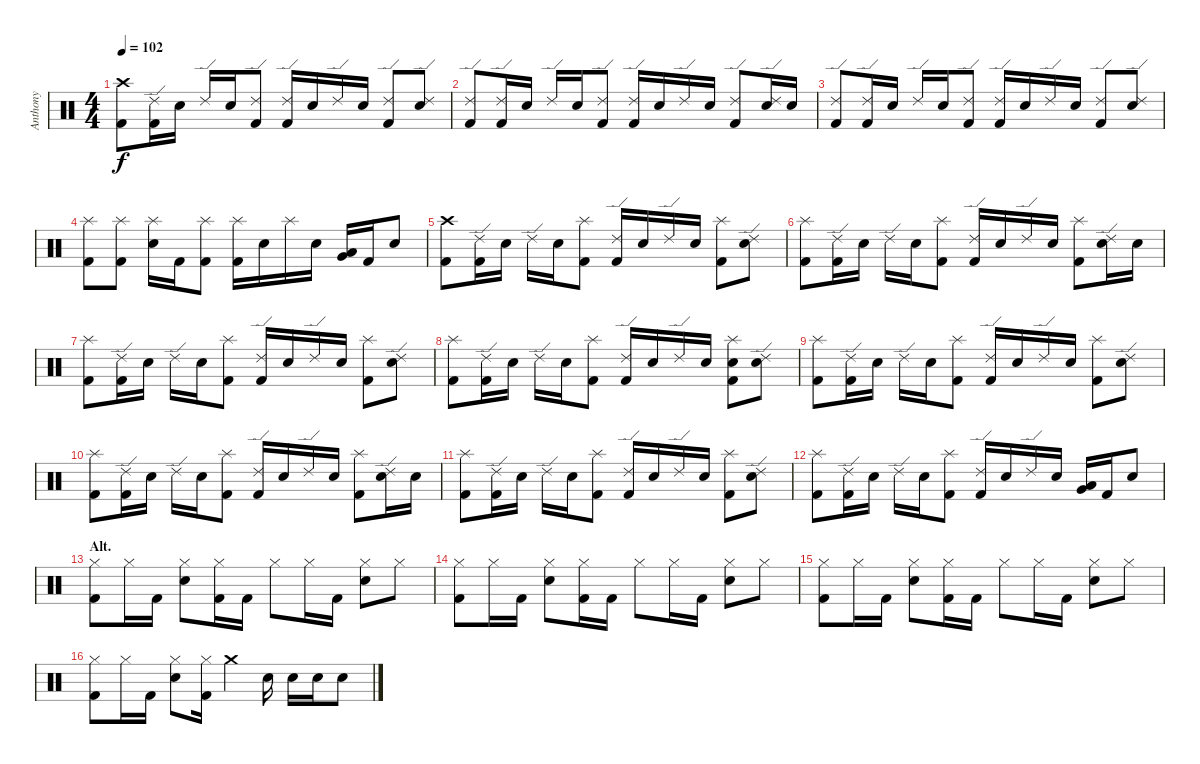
\track ("Anthony" "Anthony") {instrument percussion}
\staff {score}
\articulation defaults
\ts (4 4)
\tempo 102
\clef neutral
\ks c
("Crash high (hit)" "Kick (hit) 2").8{dy f} ("Ride (edge) 2" "Kick (hit) 2").16 "Electric Snare (hit)".16 "Ride (edge) 2".16 "Electric Snare (hit)".16 ("Ride (edge) 2" "Kick (hit) 2").8 ("Ride (edge) 2" "Kick (hit) 2").16 "Electric Snare (hit)".16 "Ride (edge) 2".16 "Electric Snare (hit)".16 ("Ride (edge) 2" "Kick (hit) 2").8 ("Ride (edge) 2" "Electric Snare (hit)").8 |
("Ride (edge) 2" "Kick (hit) 2").8 ("Ride (edge) 2" "Kick (hit) 2").16 "Electric Snare (hit)".16 "Ride (edge) 2".16 "Electric Snare (hit)".16 ("Ride (edge) 2" "Kick (hit) 2").8 ("Ride (edge) 2" "Kick (hit) 2").16 "Electric Snare (hit)".16 "Ride (edge) 2".16 "Electric Snare (hit)".16 ("Ride (edge) 2" "Kick (hit) 2").8 ("Ride (edge) 2" "Electric Snare (hit)").16 "Electric Snare (hit)".16 |
("Ride (edge) 2" "Kick (hit) 2").8 ("Ride (edge) 2" "Kick (hit) 2").16 "Electric Snare (hit)".16 "Ride (edge) 2".16 "Electric Snare (hit)".16 ("Ride (edge) 2" "Kick (hit) 2").8 ("Ride (edge) 2" "Kick (hit) 2").16 "Electric Snare (hit)".16 "Ride (edge) 2".16 "Electric Snare (hit)".16 ("Ride (edge) 2" "Kick (hit) 2").8 ("Ride (edge) 2" "Electric Snare (hit)").8 |
("Splash (hit)" "Kick (hit) 2").8 ("Splash (hit)" "Kick (hit) 2").8 ("Splash (hit)" "Electric Snare (hit)").16 "Kick (hit) 2".16 ("Splash (hit)" "Kick (hit) 2").8 ("Splash (hit)" "Kick (hit) 2").16 "Electric Snare (hit)".16 "Splash (hit)".16 "Electric Snare (hit)".16 ("Low Floor Tom (hit)" "Very Low Tom (hit)").16 "Kick (hit) 2".16 "Electric Snare (hit)".8 |
("Crash high (hit)" "Kick (hit) 2").8 ("Ride (edge) 2" "Kick (hit) 2").16 "Electric Snare (hit)".16 "Ride (edge) 2".16 "Electric Snare (hit)".16 ("Splash (hit)" "Kick (hit) 2").8 ("Ride (edge) 2" "Kick (hit) 2").16 "Electric Snare (hit)".16 "Ride (edge) 2".16 "Electric Snare (hit)".16 ("Splash (hit)" "Kick (hit) 2").8 ("Ride (edge) 2" "Electric Snare (hit)").8 |
("Splash (hit)" "Kick (hit) 2").8 ("Ride (edge) 2" "Kick (hit) 2").16 "Electric Snare (hit)".16 "Ride (edge) 2".16 "Electric Snare (hit)".16 ("Splash (hit)" "Kick (hit) 2").8 ("Ride (edge) 2" "Kick (hit) 2").16 "Electric Snare (hit)".16 "Ride (edge) 2".16 "Electric Snare (hit)".16 ("Splash (hit)" "Kick (hit) 2").8 ("Ride (edge) 2" "Electric Snare (hit)").16 "Electric Snare (hit)".16 |
("Splash (hit)" "Kick (hit) 2").8 ("Ride (edge) 2" "Kick (hit) 2").16 "Electric Snare (hit)".16 "Ride (edge) 2".16 "Electric Snare (hit)".16 ("Splash (hit)" "Kick (hit) 2").8 ("Ride (edge) 2" "Kick (hit) 2").16 "Electric Snare (hit)".16 "Ride (edge) 2".16 "Electric Snare (hit)".16 ("Splash (hit)" "Kick (hit) 2").8 ("Ride (edge) 2" "Electric Snare (hit)").8 |
("Splash (hit)" "Kick (hit) 2").8 ("Ride (edge) 2" "Kick (hit) 2").16 "Electric Snare (hit)".16 "Ride (edge) 2".16 "Electric Snare (hit)".16 ("Splash (hit)" "Kick (hit) 2").8 ("Ride (edge) 2" "Kick (hit) 2").16 "Electric Snare (hit)".16 "Ride (edge) 2".16 "Electric Snare (hit)".16 ("Splash (hit)" "Electric Snare (hit)" "Kick (hit) 2").8 ("Ride (edge) 2" "Electric Snare (hit)").8 |
("Splash (hit)" "Kick (hit) 2").8 ("Ride (edge) 2" "Kick (hit) 2").16 "Electric Snare (hit)".16 "Ride (edge) 2".16 "Electric Snare (hit)".16 ("Splash (hit)" "Kick (hit) 2").8 ("Ride (edge) 2" "Kick (hit) 2").16 "Electric Snare (hit)".16 "Ride (edge) 2".16 "Electric Snare (hit)".16 ("Splash (hit)" "Kick (hit) 2").8 ("Ride (edge) 2" "Electric Snare (hit)").8 |
("Splash (hit)" "Kick (hit) 2").8 ("Ride (edge) 2" "Kick (hit) 2").16 "Electric Snare (hit)".16 "Ride (edge) 2".16 "Electric Snare (hit)".16 ("Splash (hit)" "Kick (hit) 2").8 ("Ride (edge) 2" "Kick (hit) 2").16 "Electric Snare (hit)".16 "Ride (edge) 2".16 "Electric Snare (hit)".16 ("Splash (hit)" "Kick (hit) 2").8 ("Ride (edge) 2" "Electric Snare (hit)").16 "Electric Snare (hit)".16 |
("Splash (hit)" "Kick (hit) 2").8 ("Ride (edge) 2" "Kick (hit) 2").16 "Electric Snare (hit)".16 "Ride (edge) 2".16 "Electric Snare (hit)".16 ("Splash (hit)" "Kick (hit) 2").8 ("Ride (edge) 2" "Kick (hit) 2").16 "Electric Snare (hit)".16 "Ride (edge) 2".16 "Electric Snare (hit)".16 ("Splash (hit)" "Kick (hit) 2").8 ("Ride (edge) 2" "Electric Snare (hit)").8 |
("Splash (hit)" "Kick (hit) 2").8 ("Ride (edge) 2" "Kick (hit) 2").16 "Electric Snare (hit)".16 "Ride (edge) 2".16 "Electric Snare (hit)".16 ("Splash (hit)" "Kick (hit) 2").8 ("Ride (edge) 2" "Kick (hit) 2").16 "Electric Snare (hit)".16 "Ride (edge) 2".16 "Electric Snare (hit)".16 ("Low Floor Tom (hit)" "Very Low Tom (hit)").16 "Kick (hit) 2".16 "Electric Snare (hit)".8 |
\section ("" "Alt.")
("Hi-Hat (closed)" "Kick (hit) 2").8 "Hi-Hat (closed)".16 "Kick (hit) 2".16 ("Hi-Hat (closed)" "Electric Snare (hit)").8 ("Hi-Hat (closed)" "Kick (hit) 2").16 "Kick (hit) 2".16 "Hi-Hat (closed)".8 "Hi-Hat (closed)".16 "Kick (hit) 2".16 ("Hi-Hat (closed)" "Electric Snare (hit)").8 "Hi-Hat (closed)".8 |
("Hi-Hat (closed)" "Kick (hit) 2").8 "Hi-Hat (closed)".16 "Kick (hit) 2".16 ("Hi-Hat (closed)" "Electric Snare (hit)").8 ("Hi-Hat (closed)" "Kick (hit) 2").16 "Kick (hit) 2".16 "Hi-Hat (closed)".8 "Hi-Hat (closed)".16 "Kick (hit) 2".16 ("Hi-Hat (closed)" "Electric Snare (hit)").8 "Hi-Hat (closed)".8 |
("Hi-Hat (closed)" "Kick (hit) 2").8 "Hi-Hat (closed)".16 "Kick (hit) 2".16 ("Hi-Hat (closed)" "Electric Snare (hit)").8 ("Hi-Hat (closed)" "Kick (hit) 2").16 "Kick (hit) 2".16 "Hi-Hat (closed)".8 "Hi-Hat (closed)".16 "Kick (hit) 2".16 ("Hi-Hat (closed)" "Electric Snare (hit)").8 "Hi-Hat (closed)".8 |
("Hi-Hat (closed)" "Kick (hit) 2").8 "Hi-Hat (closed)".16 "Kick (hit) 2".16 ("Hi-Hat (closed)" "Electric Snare (hit)").8 ("Hi-Hat (closed)" "Kick (hit) 2").16 "Crash medium (hit)".4 "Electric Snare (hit)".16 "Electric Snare (hit)".16 "Electric Snare (hit)".16 "Electric Snare (hit)".8
